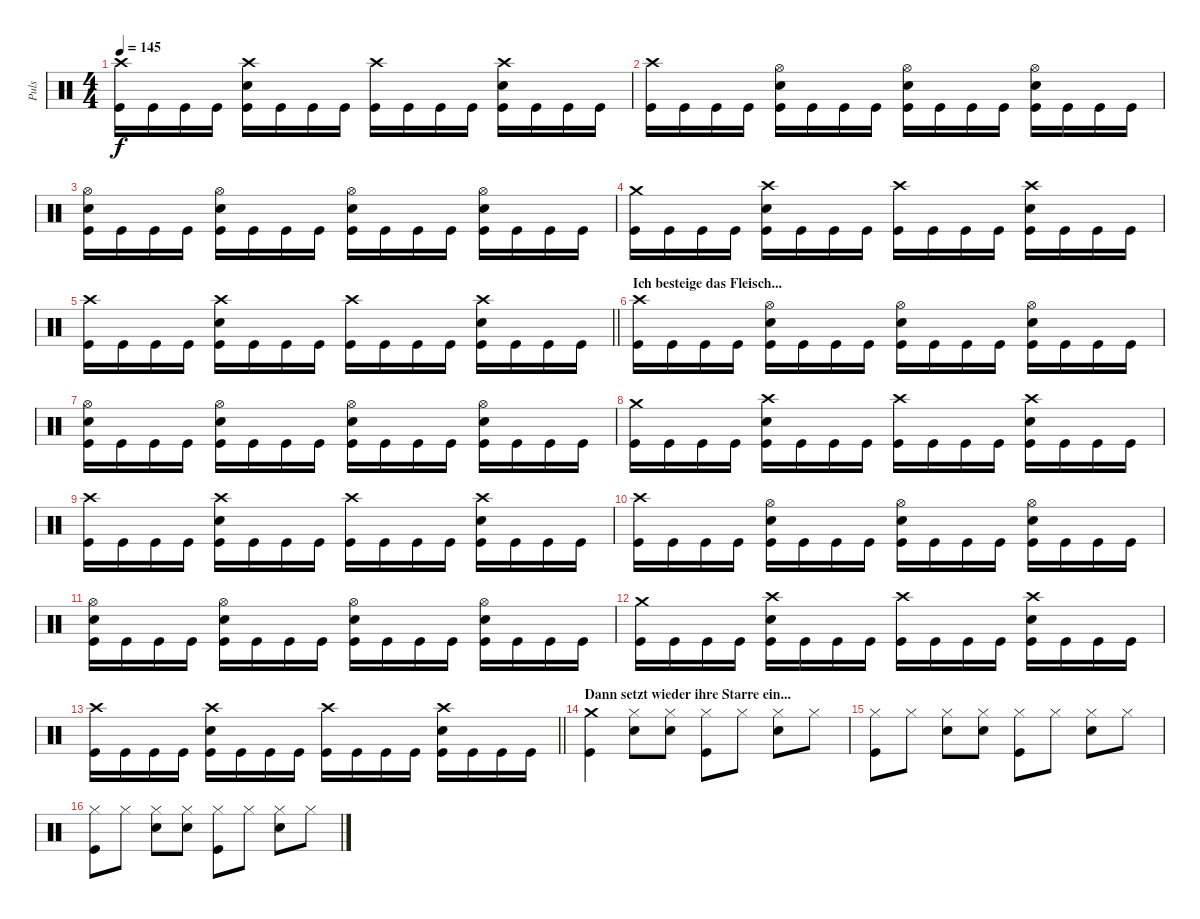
\track ("Puls" "Puls") {instrument percussion}
\staff {score}
\articulation defaults
\ts (4 4)
\tempo 145
\clef neutral
\ks c
("Crash high (hit)" "Kick (hit)").16{dy f} "Kick (hit)".16 "Kick (hit)".16 "Kick (hit)".16 ("Kick (hit)" "Crash high (hit)" "Snare (hit) 2").16 "Kick (hit)".16 "Kick (hit)".16 "Kick (hit)".16 ("Kick (hit)" "Crash high (hit)").16 "Kick (hit)".16 "Kick (hit)".16 "Kick (hit)".16 ("Kick (hit)" "Crash high (hit)" "Snare (hit) 2").16 "Kick (hit)".16 "Kick (hit)".16 "Kick (hit)".16 |
("Crash high (hit)" "Kick (hit)").16 "Kick (hit)".16 "Kick (hit)".16 "Kick (hit)".16 ("Kick (hit)" "Hi-Hat (open)" "Snare (hit) 2").16 "Kick (hit)".16 "Kick (hit)".16 "Kick (hit)".16 ("Kick (hit)" "Hi-Hat (open)" "Snare (hit) 2").16 "Kick (hit)".16 "Kick (hit)".16 "Kick (hit)".16 ("Kick (hit)" "Hi-Hat (open)" "Snare (hit) 2").16 "Kick (hit)".16 "Kick (hit)".16 "Kick (hit)".16 |
("Hi-Hat (open)" "Kick (hit)" "Snare (hit) 2").16 "Kick (hit)".16 "Kick (hit)".16 "Kick (hit)".16 ("Kick (hit)" "Hi-Hat (open)" "Snare (hit) 2").16 "Kick (hit)".16 "Kick (hit)".16 "Kick (hit)".16 ("Kick (hit)" "Hi-Hat (open)" "Snare (hit) 2").16 "Kick (hit)".16 "Kick (hit)".16 "Kick (hit)".16 ("Kick (hit)" "Hi-Hat (open)" "Snare (hit) 2").16 "Kick (hit)".16 "Kick (hit)".16 "Kick (hit)".16 |
("Crash medium (hit)" "Kick (hit)").16 "Kick (hit)".16 "Kick (hit)".16 "Kick (hit)".16 ("Kick (hit)" "Crash high (hit)" "Snare (hit) 2").16 "Kick (hit)".16 "Kick (hit)".16 "Kick (hit)".16 ("Kick (hit)" "Crash high (hit)").16 "Kick (hit)".16 "Kick (hit)".16 "Kick (hit)".16 ("Kick (hit)" "Crash high (hit)" "Snare (hit) 2").16 "Kick (hit)".16 "Kick (hit)".16 "Kick (hit)".16 |
\barLineRight lightlight
("Crash high (hit)" "Kick (hit)").16 "Kick (hit)".16 "Kick (hit)".16 "Kick (hit)".16 ("Kick (hit)" "Crash high (hit)" "Snare (hit) 2").16 "Kick (hit)".16 "Kick (hit)".16 "Kick (hit)".16 ("Kick (hit)" "Crash high (hit)").16 "Kick (hit)".16 "Kick (hit)".16 "Kick (hit)".16 ("Kick (hit)" "Crash high (hit)" "Snare (hit) 2").16 "Kick (hit)".16 "Kick (hit)".16 "Kick (hit)".16 |
\section ("" "Ich besteige das Fleisch...")
("Crash high (hit)" "Kick (hit)").16 "Kick (hit)".16 "Kick (hit)".16 "Kick (hit)".16 ("Kick (hit)" "Hi-Hat (open)" "Snare (hit) 2").16 "Kick (hit)".16 "Kick (hit)".16 "Kick (hit)".16 ("Kick (hit)" "Hi-Hat (open)" "Snare (hit) 2").16 "Kick (hit)".16 "Kick (hit)".16 "Kick (hit)".16 ("Kick (hit)" "Hi-Hat (open)" "Snare (hit) 2").16 "Kick (hit)".16 "Kick (hit)".16 "Kick (hit)".16 |
("Hi-Hat (open)" "Kick (hit)" "Snare (hit) 2").16 "Kick (hit)".16 "Kick (hit)".16 "Kick (hit)".16 ("Kick (hit)" "Hi-Hat (open)" "Snare (hit) 2").16 "Kick (hit)".16 "Kick (hit)".16 "Kick (hit)".16 ("Kick (hit)" "Hi-Hat (open)" "Snare (hit) 2").16 "Kick (hit)".16 "Kick (hit)".16 "Kick (hit)".16 ("Kick (hit)" "Hi-Hat (open)" "Snare (hit) 2").16 "Kick (hit)".16 "Kick (hit)".16 "Kick (hit)".16 |
("Crash medium (hit)" "Kick (hit)").16 "Kick (hit)".16 "Kick (hit)".16 "Kick (hit)".16 ("Kick (hit)" "Crash high (hit)" "Snare (hit) 2").16 "Kick (hit)".16 "Kick (hit)".16 "Kick (hit)".16 ("Kick (hit)" "Crash high (hit)").16 "Kick (hit)".16 "Kick (hit)".16 "Kick (hit)".16 ("Kick (hit)" "Crash high (hit)" "Snare (hit) 2").16 "Kick (hit)".16 "Kick (hit)".16 "Kick (hit)".16 |
("Crash high (hit)" "Kick (hit)").16 "Kick (hit)".16 "Kick (hit)".16 "Kick (hit)".16 ("Kick (hit)" "Crash high (hit)" "Snare (hit) 2").16 "Kick (hit)".16 "Kick (hit)".16 "Kick (hit)".16 ("Kick (hit)" "Crash high (hit)").16 "Kick (hit)".16 "Kick (hit)".16 "Kick (hit)".16 ("Kick (hit)" "Crash high (hit)" "Snare (hit) 2").16 "Kick (hit)".16 "Kick (hit)".16 "Kick (hit)".16 |
("Crash high (hit)" "Kick (hit)").16 "Kick (hit)".16 "Kick (hit)".16 "Kick (hit)".16 ("Kick (hit)" "Hi-Hat (open)" "Snare (hit) 2").16 "Kick (hit)".16 "Kick (hit)".16 "Kick (hit)".16 ("Kick (hit)" "Hi-Hat (open)" "Snare (hit) 2").16 "Kick (hit)".16 "Kick (hit)".16 "Kick (hit)".16 ("Kick (hit)" "Hi-Hat (open)" "Snare (hit) 2").16 "Kick (hit)".16 "Kick (hit)".16 "Kick (hit)".16 |
("Hi-Hat (open)" "Kick (hit)" "Snare (hit) 2").16 "Kick (hit)".16 "Kick (hit)".16 "Kick (hit)".16 ("Kick (hit)" "Hi-Hat (open)" "Snare (hit) 2").16 "Kick (hit)".16 "Kick (hit)".16 "Kick (hit)".16 ("Kick (hit)" "Hi-Hat (open)" "Snare (hit) 2").16 "Kick (hit)".16 "Kick (hit)".16 "Kick (hit)".16 ("Kick (hit)" "Hi-Hat (open)" "Snare (hit) 2").16 "Kick (hit)".16 "Kick (hit)".16 "Kick (hit)".16 |
("Crash medium (hit)" "Kick (hit)").16 "Kick (hit)".16 "Kick (hit)".16 "Kick (hit)".16 ("Kick (hit)" "Crash high (hit)" "Snare (hit) 2").16 "Kick (hit)".16 "Kick (hit)".16 "Kick (hit)".16 ("Kick (hit)" "Crash high (hit)").16 "Kick (hit)".16 "Kick (hit)".16 "Kick (hit)".16 ("Kick (hit)" "Crash high (hit)" "Snare (hit) 2").16 "Kick (hit)".16 "Kick (hit)".16 "Kick (hit)".16 |
\barLineRight lightlight
("Crash high (hit)" "Kick (hit)").16 "Kick (hit)".16 "Kick (hit)".16 "Kick (hit)".16 ("Kick (hit)" "Crash high (hit)" "Snare (hit) 2").16 "Kick (hit)".16 "Kick (hit)".16 "Kick (hit)".16 ("Kick (hit)" "Crash high (hit)").16 "Kick (hit)".16 "Kick (hit)".16 "Kick (hit)".16 ("Kick (hit)" "Crash high (hit)" "Snare (hit) 2").16 "Kick (hit)".16 "Kick (hit)".16 "Kick (hit)".16 |
\section ("" "Dann setzt wieder ihre Starre ein...")
("Crash medium (hit)" "Kick (hit)").4 ("Hi-Hat (closed)" "Snare (hit) 2").8 ("Hi-Hat (closed)" "Snare (hit) 2").8 ("Hi-Hat (closed)" "Kick (hit)").8 "Hi-Hat (closed)".8 ("Hi-Hat (closed)" "Snare (hit) 2").8 "Hi-Hat (closed)".8 |
("Hi-Hat (closed)" "Kick (hit)").8 "Hi-Hat (closed)".8 ("Hi-Hat (closed)" "Snare (hit) 2").8 ("Hi-Hat (closed)" "Snare (hit) 2").8 ("Hi-Hat (closed)" "Kick (hit)").8 "Hi-Hat (closed)".8 ("Hi-Hat (closed)" "Snare (hit) 2").8 "Hi-Hat (closed)".8 |
("Hi-Hat (closed)" "Kick (hit)").8 "Hi-Hat (closed)".8 ("Hi-Hat (closed)" "Snare (hit) 2").8 ("Hi-Hat (closed)" "Snare (hit) 2").8 ("Hi-Hat (closed)" "Kick (hit)").8 "Hi-Hat (closed)".8 ("Hi-Hat (closed)" "Snare (hit) 2").8 "Hi-Hat (closed)".8
